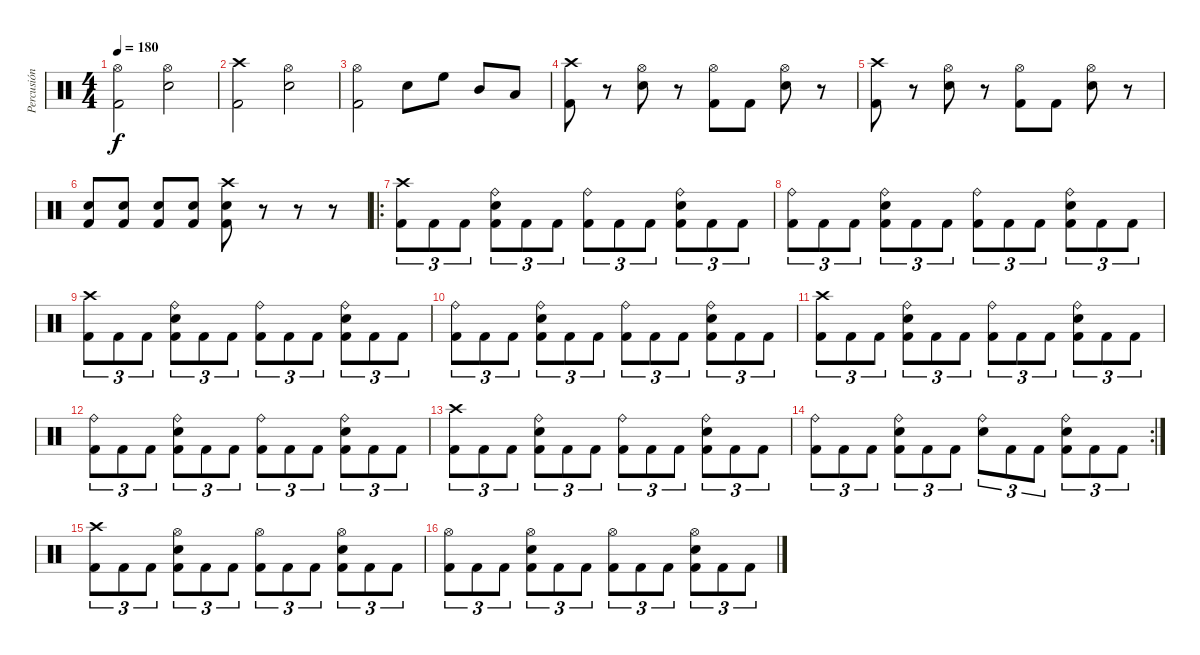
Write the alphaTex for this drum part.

\track ("Percusión" "Percusión") {instrument percussion}
\staff {score}
\articulation defaults
\ts (4 4)
\tempo 180
\clef neutral
\ks c
("Hi-Hat (open)" "Kick (hit) 2").2{dy f} ("Hi-Hat (open)" "Electric Snare (hit)").2 |
("Crash high (hit)" "Kick (hit) 2").2 ("Hi-Hat (open)" "Electric Snare (hit)").2 |
("Hi-Hat (open)" "Kick (hit) 2").2 "Electric Snare (hit)".8 "High Floor Tom (hit)".8 "Mid Tom (hit)".8 "Low Tom (hit)".8 |
("Crash high (hit)" "Kick (hit) 2").8 r.8 ("Hi-Hat (open)" "Electric Snare (hit)").8 r.8 ("Hi-Hat (open)" "Kick (hit) 2").8 "Kick (hit) 2".8 ("Hi-Hat (open)" "Electric Snare (hit)").8 r.8 |
("Crash high (hit)" "Kick (hit) 2").8 r.8 ("Hi-Hat (open)" "Electric Snare (hit)").8 r.8 ("Hi-Hat (open)" "Kick (hit) 2").8 "Kick (hit) 2".8 ("Hi-Hat (open)" "Electric Snare (hit)").8 r.8 |
("Kick (hit) 2" "Electric Snare (hit)").8 ("Kick (hit) 2" "Electric Snare (hit)").8 ("Kick (hit) 2" "Electric Snare (hit)").8 ("Kick (hit) 2" "Electric Snare (hit)").8 ("Crash high (hit)" "Kick (hit) 2" "Electric Snare (hit)").8 r.8 r.8 r.8 |
\ro
("Crash high (hit)" "Kick (hit) 2").8{tu (3 2)} "Kick (hit) 2".8{tu (3 2)} "Kick (hit) 2".8{tu (3 2)} ("Ride (bell)" "Kick (hit) 2" "Electric Snare (hit)").8{tu (3 2)} "Kick (hit) 2".8{tu (3 2)} "Kick (hit) 2".8{tu (3 2)} ("Ride (bell)" "Kick (hit) 2").8{tu (3 2)} "Kick (hit) 2".8{tu (3 2)} "Kick (hit) 2".8{tu (3 2)} ("Ride (bell)" "Kick (hit) 2" "Electric Snare (hit)").8{tu (3 2)} "Kick (hit) 2".8{tu (3 2)} "Kick (hit) 2".8{tu (3 2)} |
("Ride (bell)" "Kick (hit) 2").8{tu (3 2)} "Kick (hit) 2".8{tu (3 2)} "Kick (hit) 2".8{tu (3 2)} ("Ride (bell)" "Kick (hit) 2" "Electric Snare (hit)").8{tu (3 2)} "Kick (hit) 2".8{tu (3 2)} "Kick (hit) 2".8{tu (3 2)} ("Ride (bell)" "Kick (hit) 2").8{tu (3 2)} "Kick (hit) 2".8{tu (3 2)} "Kick (hit) 2".8{tu (3 2)} ("Ride (bell)" "Kick (hit) 2" "Electric Snare (hit)").8{tu (3 2)} "Kick (hit) 2".8{tu (3 2)} "Kick (hit) 2".8{tu (3 2)} |
("Crash high (hit)" "Kick (hit) 2").8{tu (3 2)} "Kick (hit) 2".8{tu (3 2)} "Kick (hit) 2".8{tu (3 2)} ("Ride (bell)" "Kick (hit) 2" "Electric Snare (hit)").8{tu (3 2)} "Kick (hit) 2".8{tu (3 2)} "Kick (hit) 2".8{tu (3 2)} ("Ride (bell)" "Kick (hit) 2").8{tu (3 2)} "Kick (hit) 2".8{tu (3 2)} "Kick (hit) 2".8{tu (3 2)} ("Ride (bell)" "Kick (hit) 2" "Electric Snare (hit)").8{tu (3 2)} "Kick (hit) 2".8{tu (3 2)} "Kick (hit) 2".8{tu (3 2)} |
("Ride (bell)" "Kick (hit) 2").8{tu (3 2)} "Kick (hit) 2".8{tu (3 2)} "Kick (hit) 2".8{tu (3 2)} ("Ride (bell)" "Kick (hit) 2" "Electric Snare (hit)").8{tu (3 2)} "Kick (hit) 2".8{tu (3 2)} "Kick (hit) 2".8{tu (3 2)} ("Ride (bell)" "Kick (hit) 2").8{tu (3 2)} "Kick (hit) 2".8{tu (3 2)} "Kick (hit) 2".8{tu (3 2)} ("Ride (bell)" "Kick (hit) 2" "Electric Snare (hit)").8{tu (3 2)} "Kick (hit) 2".8{tu (3 2)} "Kick (hit) 2".8{tu (3 2)} |
("Crash high (hit)" "Kick (hit) 2").8{tu (3 2)} "Kick (hit) 2".8{tu (3 2)} "Kick (hit) 2".8{tu (3 2)} ("Ride (bell)" "Kick (hit) 2" "Electric Snare (hit)").8{tu (3 2)} "Kick (hit) 2".8{tu (3 2)} "Kick (hit) 2".8{tu (3 2)} ("Ride (bell)" "Kick (hit) 2").8{tu (3 2)} "Kick (hit) 2".8{tu (3 2)} "Kick (hit) 2".8{tu (3 2)} ("Ride (bell)" "Kick (hit) 2" "Electric Snare (hit)").8{tu (3 2)} "Kick (hit) 2".8{tu (3 2)} "Kick (hit) 2".8{tu (3 2)} |
("Ride (bell)" "Kick (hit) 2").8{tu (3 2)} "Kick (hit) 2".8{tu (3 2)} "Kick (hit) 2".8{tu (3 2)} ("Ride (bell)" "Kick (hit) 2" "Electric Snare (hit)").8{tu (3 2)} "Kick (hit) 2".8{tu (3 2)} "Kick (hit) 2".8{tu (3 2)} ("Ride (bell)" "Kick (hit) 2").8{tu (3 2)} "Kick (hit) 2".8{tu (3 2)} "Kick (hit) 2".8{tu (3 2)} ("Ride (bell)" "Kick (hit) 2" "Electric Snare (hit)").8{tu (3 2)} "Kick (hit) 2".8{tu (3 2)} "Kick (hit) 2".8{tu (3 2)} |
("Crash high (hit)" "Kick (hit) 2").8{tu (3 2)} "Kick (hit) 2".8{tu (3 2)} "Kick (hit) 2".8{tu (3 2)} ("Ride (bell)" "Kick (hit) 2" "Electric Snare (hit)").8{tu (3 2)} "Kick (hit) 2".8{tu (3 2)} "Kick (hit) 2".8{tu (3 2)} ("Ride (bell)" "Kick (hit) 2").8{tu (3 2)} "Kick (hit) 2".8{tu (3 2)} "Kick (hit) 2".8{tu (3 2)} ("Ride (bell)" "Kick (hit) 2" "Electric Snare (hit)").8{tu (3 2)} "Kick (hit) 2".8{tu (3 2)} "Kick (hit) 2".8{tu (3 2)} |
\rc 2
("Ride (bell)" "Kick (hit) 2").8{tu (3 2)} "Kick (hit) 2".8{tu (3 2)} "Kick (hit) 2".8{tu (3 2)} ("Ride (bell)" "Kick (hit) 2" "Electric Snare (hit)").8{tu (3 2)} "Kick (hit) 2".8{tu (3 2)} "Kick (hit) 2".8{tu (3 2)} ("Ride (bell)" "Electric Snare (hit)").8{tu (3 2)} "Kick (hit) 2".8{tu (3 2)} "Kick (hit) 2".8{tu (3 2)} ("Ride (bell)" "Kick (hit) 2" "Electric Snare (hit)").8{tu (3 2)} "Kick (hit) 2".8{tu (3 2)} "Kick (hit) 2".8{tu (3 2)} |
("Crash high (hit)" "Kick (hit) 2").8{tu (3 2)} "Kick (hit) 2".8{tu (3 2)} "Kick (hit) 2".8{tu (3 2)} ("Hi-Hat (open)" "Kick (hit) 2" "Electric Snare (hit)").8{tu (3 2)} "Kick (hit) 2".8{tu (3 2)} "Kick (hit) 2".8{tu (3 2)} ("Hi-Hat (open)" "Kick (hit) 2").8{tu (3 2)} "Kick (hit) 2".8{tu (3 2)} "Kick (hit) 2".8{tu (3 2)} ("Hi-Hat (open)" "Kick (hit) 2" "Electric Snare (hit)").8{tu (3 2)} "Kick (hit) 2".8{tu (3 2)} "Kick (hit) 2".8{tu (3 2)} |
("Hi-Hat (open)" "Kick (hit) 2").8{tu (3 2)} "Kick (hit) 2".8{tu (3 2)} "Kick (hit) 2".8{tu (3 2)} ("Hi-Hat (open)" "Kick (hit) 2" "Electric Snare (hit)").8{tu (3 2)} "Kick (hit) 2".8{tu (3 2)} "Kick (hit) 2".8{tu (3 2)} ("Hi-Hat (open)" "Kick (hit) 2").8{tu (3 2)} "Kick (hit) 2".8{tu (3 2)} "Kick (hit) 2".8{tu (3 2)} ("Hi-Hat (open)" "Kick (hit) 2" "Electric Snare (hit)").8{tu (3 2)} "Kick (hit) 2".8{tu (3 2)} "Kick (hit) 2".8{tu (3 2)}
